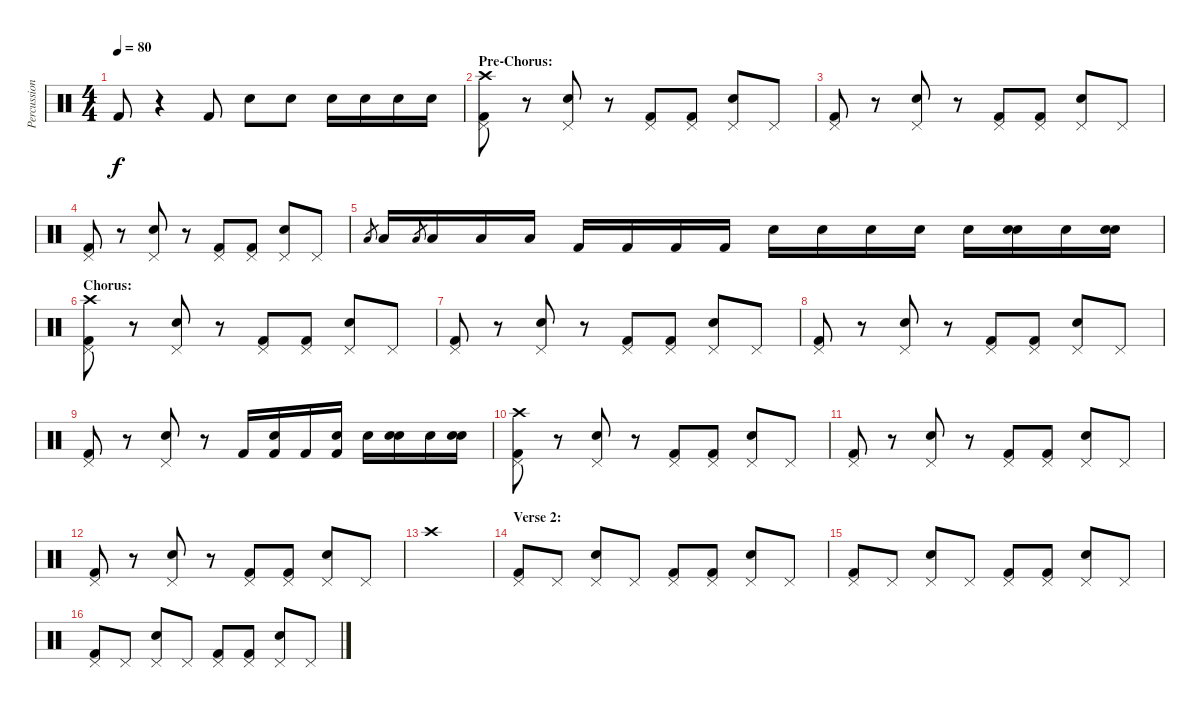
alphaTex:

\track ("Percussion" "Percussion") {instrument percussion}
\staff {score}
\articulation defaults
\ts (4 4)
\tempo 80
\clef neutral
\ks c "Kick (hit) 2".8{dy f}
r.4 "Kick (hit) 2".8 "Snare (hit) 2".8 "Snare (hit) 2".8 "Snare (hit) 2".16 "Snare (hit) 2".16 "Snare (hit) 2".16 "Snare (hit) 2".16 |
\section ("" "Pre-Chorus:")
("Pedal Hi-Hat (hit)" "Crash high (hit)" "Kick (hit) 2").8 r.8 ("Pedal Hi-Hat (hit)" "Snare (hit) 2").8 r.8 ("Pedal Hi-Hat (hit)" "Kick (hit) 2").8 ("Pedal Hi-Hat (hit)" "Kick (hit) 2").8 ("Pedal Hi-Hat (hit)" "Snare (hit) 2").8 "Pedal Hi-Hat (hit)".8 |
("Pedal Hi-Hat (hit)" "Kick (hit) 2").8 r.8 ("Pedal Hi-Hat (hit)" "Snare (hit) 2").8 r.8 ("Pedal Hi-Hat (hit)" "Kick (hit) 2").8 ("Pedal Hi-Hat (hit)" "Kick (hit) 2").8 ("Pedal Hi-Hat (hit)" "Snare (hit) 2").8 "Pedal Hi-Hat (hit)".8 |
("Pedal Hi-Hat (hit)" "Kick (hit) 2").8 r.8 ("Pedal Hi-Hat (hit)" "Snare (hit) 2").8 r.8 ("Pedal Hi-Hat (hit)" "Kick (hit) 2").8 ("Pedal Hi-Hat (hit)" "Kick (hit) 2").8 ("Pedal Hi-Hat (hit)" "Snare (hit) 2").8 "Pedal Hi-Hat (hit)".8 |
"Low Tom (hit)".8{gr} "Low Tom (hit)".16 "Low Tom (hit)".8{gr} "Low Tom (hit)".16 "Low Tom (hit)".16 "Low Tom (hit)".16 "Kick (hit) 2".16 "Kick (hit) 2".16 "Kick (hit) 2".16 "Kick (hit) 2".16 "Snare (hit) 2".16 "Snare (hit) 2".16 "Snare (hit) 2".16 "Snare (hit) 2".16 "Snare (hit) 2".16 ("Snare (hit) 2" "Snare (hit) 2").16 "Snare (hit) 2".16 ("Snare (hit) 2" "Snare (hit) 2").16 |
\section ("" "Chorus:")
("Pedal Hi-Hat (hit)" "Crash high (hit)" "Kick (hit) 2").8 r.8 ("Pedal Hi-Hat (hit)" "Snare (hit) 2").8 r.8 ("Pedal Hi-Hat (hit)" "Kick (hit) 2").8 ("Pedal Hi-Hat (hit)" "Kick (hit) 2").8 ("Pedal Hi-Hat (hit)" "Snare (hit) 2").8 "Pedal Hi-Hat (hit)".8 |
("Pedal Hi-Hat (hit)" "Kick (hit) 2").8 r.8 ("Pedal Hi-Hat (hit)" "Snare (hit) 2").8 r.8 ("Pedal Hi-Hat (hit)" "Kick (hit) 2").8 ("Pedal Hi-Hat (hit)" "Kick (hit) 2").8 ("Pedal Hi-Hat (hit)" "Snare (hit) 2").8 "Pedal Hi-Hat (hit)".8 |
("Pedal Hi-Hat (hit)" "Kick (hit) 2").8 r.8 ("Pedal Hi-Hat (hit)" "Snare (hit) 2").8 r.8 ("Pedal Hi-Hat (hit)" "Kick (hit) 2").8 ("Pedal Hi-Hat (hit)" "Kick (hit) 2").8 ("Pedal Hi-Hat (hit)" "Snare (hit) 2").8 "Pedal Hi-Hat (hit)".8 |
("Pedal Hi-Hat (hit)" "Kick (hit) 2").8 r.8 ("Pedal Hi-Hat (hit)" "Snare (hit) 2").8 r.8 "Kick (hit) 2".16 ("Snare (hit) 2" "Kick (hit) 2").16 "Kick (hit) 2".16 ("Snare (hit) 2" "Kick (hit) 2").16 "Snare (hit) 2".16 ("Snare (hit) 2" "Snare (hit) 2").16 "Snare (hit) 2".16 ("Snare (hit) 2" "Snare (hit) 2").16 |
("Pedal Hi-Hat (hit)" "Crash high (hit)" "Kick (hit) 2").8 r.8 ("Pedal Hi-Hat (hit)" "Snare (hit) 2").8 r.8 ("Pedal Hi-Hat (hit)" "Kick (hit) 2").8 ("Pedal Hi-Hat (hit)" "Kick (hit) 2").8 ("Pedal Hi-Hat (hit)" "Snare (hit) 2").8 "Pedal Hi-Hat (hit)".8 |
("Pedal Hi-Hat (hit)" "Kick (hit) 2").8 r.8 ("Pedal Hi-Hat (hit)" "Snare (hit) 2").8 r.8 ("Pedal Hi-Hat (hit)" "Kick (hit) 2").8 ("Pedal Hi-Hat (hit)" "Kick (hit) 2").8 ("Pedal Hi-Hat (hit)" "Snare (hit) 2").8 "Pedal Hi-Hat (hit)".8 |
("Pedal Hi-Hat (hit)" "Kick (hit) 2").8 r.8 ("Pedal Hi-Hat (hit)" "Snare (hit) 2").8 r.8 ("Pedal Hi-Hat (hit)" "Kick (hit) 2").8 ("Pedal Hi-Hat (hit)" "Kick (hit) 2").8 ("Pedal Hi-Hat (hit)" "Snare (hit) 2").8 "Pedal Hi-Hat (hit)".8 |
"Crash high (hit)".1 |
\section ("" "Verse 2:")
("Pedal Hi-Hat (hit)" "Kick (hit) 2").8 "Pedal Hi-Hat (hit)".8 ("Pedal Hi-Hat (hit)" "Snare (hit) 2").8 "Pedal Hi-Hat (hit)".8 ("Pedal Hi-Hat (hit)" "Kick (hit) 2").8 ("Pedal Hi-Hat (hit)" "Kick (hit) 2").8 ("Pedal Hi-Hat (hit)" "Snare (hit) 2").8 "Pedal Hi-Hat (hit)".8 |
("Pedal Hi-Hat (hit)" "Kick (hit) 2").8 "Pedal Hi-Hat (hit)".8 ("Pedal Hi-Hat (hit)" "Snare (hit) 2").8 "Pedal Hi-Hat (hit)".8 ("Pedal Hi-Hat (hit)" "Kick (hit) 2").8 ("Pedal Hi-Hat (hit)" "Kick (hit) 2").8 ("Pedal Hi-Hat (hit)" "Snare (hit) 2").8 "Pedal Hi-Hat (hit)".8 |
("Pedal Hi-Hat (hit)" "Kick (hit) 2").8 "Pedal Hi-Hat (hit)".8 ("Pedal Hi-Hat (hit)" "Snare (hit) 2").8 "Pedal Hi-Hat (hit)".8 ("Pedal Hi-Hat (hit)" "Kick (hit) 2").8 ("Pedal Hi-Hat (hit)" "Kick (hit) 2").8 ("Pedal Hi-Hat (hit)" "Snare (hit) 2").8 "Pedal Hi-Hat (hit)".8
